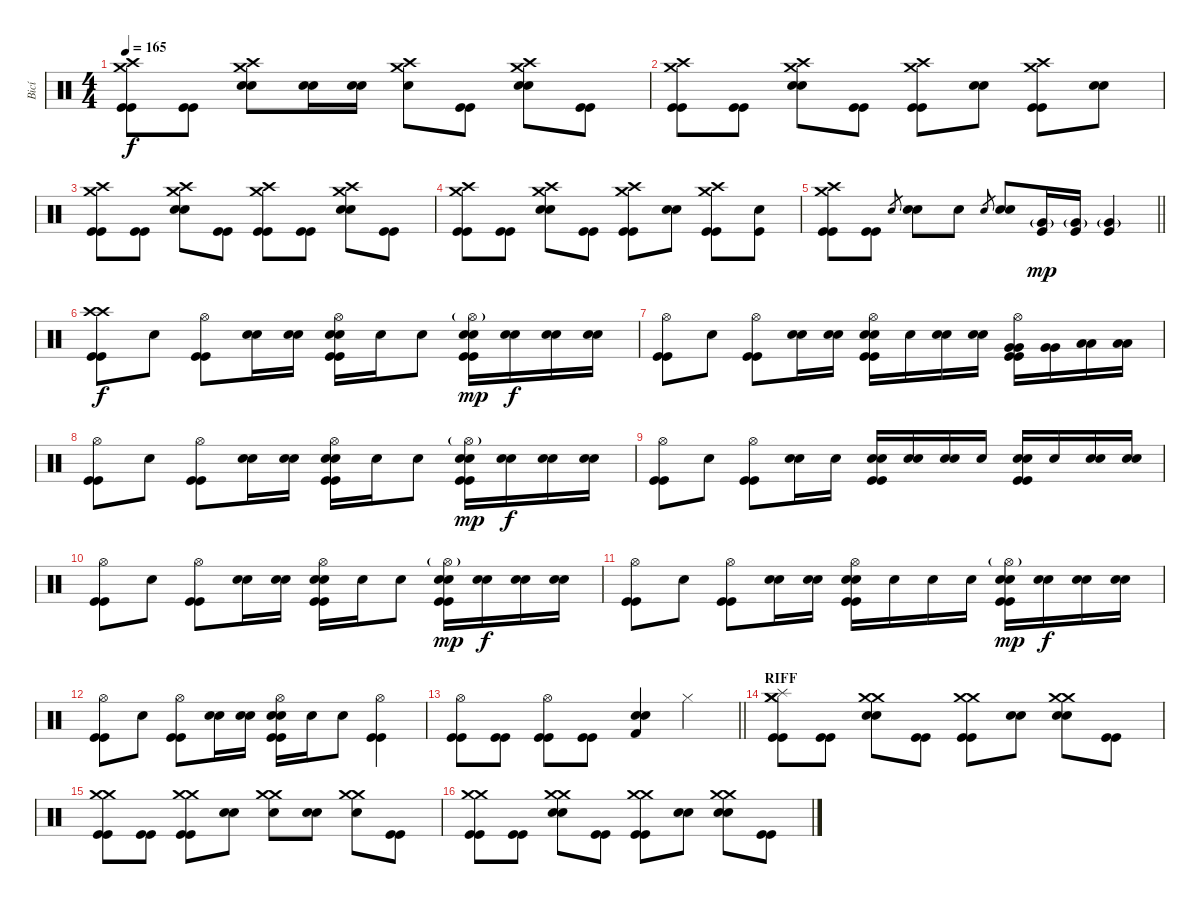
\track ("Bicí" "Bicí") {instrument percussion}
\staff {score}
\articulation defaults
\ts (4 4)
\tempo 165
\clef neutral
\ks c
("Crash medium (hit)" "Crash high (hit)" "Kick (hit)" "Kick (hit)").8{dy f} ("Kick (hit)" "Kick (hit)").8 ("Crash medium (hit)" "Crash high (hit)" "Electric Snare (hit)" "Electric Snare (hit)").8 ("Electric Snare (hit)" "Electric Snare (hit)").16 ("Electric Snare (hit)" "Electric Snare (hit)").16 ("Crash medium (hit)" "Crash high (hit)" "Snare (hit)").8 ("Kick (hit)" "Kick (hit)").8 ("Crash medium (hit)" "Crash high (hit)" "Electric Snare (hit)" "Electric Snare (hit)").8 ("Kick (hit)" "Kick (hit)").8 |
("Crash medium (hit)" "Crash high (hit)" "Kick (hit)" "Kick (hit)").8 ("Kick (hit)" "Kick (hit)").8 ("Crash medium (hit)" "Crash high (hit)" "Electric Snare (hit)" "Electric Snare (hit)").8 ("Kick (hit)" "Kick (hit)").8 ("Crash medium (hit)" "Crash high (hit)" "Kick (hit)" "Kick (hit)").8 ("Electric Snare (hit)" "Electric Snare (hit)").8 ("Crash medium (hit)" "Crash high (hit)" "Kick (hit)" "Kick (hit)").8 ("Electric Snare (hit)" "Electric Snare (hit)").8 |
("Crash medium (hit)" "Crash high (hit)" "Kick (hit)" "Kick (hit)").8 ("Kick (hit)" "Kick (hit)").8 ("Crash medium (hit)" "Crash high (hit)" "Electric Snare (hit)" "Electric Snare (hit)").8 ("Kick (hit)" "Kick (hit)").8 ("Crash medium (hit)" "Crash high (hit)" "Kick (hit)" "Kick (hit)").8 ("Kick (hit)" "Kick (hit)").8 ("Crash medium (hit)" "Crash high (hit)" "Electric Snare (hit)" "Electric Snare (hit)").8 ("Kick (hit)" "Kick (hit)").8 |
("Crash medium (hit)" "Crash high (hit)" "Kick (hit)" "Kick (hit)").8 ("Kick (hit)" "Kick (hit)").8 ("Crash medium (hit)" "Crash high (hit)" "Electric Snare (hit)" "Electric Snare (hit)").8 ("Kick (hit)" "Kick (hit)").8 ("Crash medium (hit)" "Crash high (hit)" "Kick (hit)" "Kick (hit)").8 ("Electric Snare (hit)" "Electric Snare (hit)").8 ("Crash medium (hit)" "Crash high (hit)" "Kick (hit)" "Kick (hit)").8 ("Kick (hit)" "Electric Snare (hit)").8 |
\barLineRight lightlight
("Crash medium (hit)" "Crash high (hit)" "Kick (hit)" "Kick (hit)").8 ("Kick (hit)" "Kick (hit)").8 "Electric Snare (hit)".8{gr} ("Electric Snare (hit)" "Electric Snare (hit)").8 "Snare (hit)".8 "Electric Snare (hit)".8{gr} ("Electric Snare (hit)" "Electric Snare (hit)").8 ("Very Low Tom (hit)"{g} "Kick (hit)").16{dy mp} ("Very Low Tom (hit)"{g} "Kick (hit)").16 ("Very Low Tom (hit)"{g} "Kick (hit)").4 |
\section ("" "")
("Crash high (hit)" "Crash high (hit)" "Kick (hit)" "Kick (hit)").8{dy f} "Snare (hit)".8 ("Hi-Hat (open)" "Kick (hit)" "Kick (hit)").8 ("Electric Snare (hit)" "Electric Snare (hit)").16 ("Electric Snare (hit)" "Electric Snare (hit)").16 ("Hi-Hat (open)" "Electric Snare (hit)" "Electric Snare (hit)" "Kick (hit)" "Kick (hit)").16 "Snare (hit)".16 "Snare (hit)".8 ("Hi-Hat (open)"{g} "Electric Snare (hit)" "Electric Snare (hit)" "Kick (hit)" "Kick (hit)").16{dy mp} ("Electric Snare (hit)" "Electric Snare (hit)").16{dy f} ("Electric Snare (hit)" "Electric Snare (hit)").16 ("Electric Snare (hit)" "Electric Snare (hit)").16 |
("Hi-Hat (open)" "Kick (hit)" "Kick (hit)").8 "Snare (hit)".8 ("Hi-Hat (open)" "Kick (hit)" "Kick (hit)").8 ("Electric Snare (hit)" "Electric Snare (hit)").16 ("Electric Snare (hit)" "Electric Snare (hit)").16 ("Hi-Hat (open)" "Electric Snare (hit)" "Electric Snare (hit)" "Kick (hit)" "Kick (hit)").16 "Snare (hit)".16 ("Electric Snare (hit)" "Electric Snare (hit)").16 ("Electric Snare (hit)" "Electric Snare (hit)").16 ("Hi-Hat (open)" "Very Low Tom (hit)" "Very Low Tom (hit)" "Kick (hit)" "Kick (hit)").16 ("Very Low Tom (hit)" "Very Low Tom (hit)").16 ("Low Floor Tom (hit)" "Low Floor Tom (hit)").16 ("Low Floor Tom (hit)" "Low Floor Tom (hit)").16 |
("Hi-Hat (open)" "Kick (hit)" "Kick (hit)").8 "Snare (hit)".8 ("Hi-Hat (open)" "Kick (hit)" "Kick (hit)").8 ("Electric Snare (hit)" "Electric Snare (hit)").16 ("Electric Snare (hit)" "Electric Snare (hit)").16 ("Hi-Hat (open)" "Electric Snare (hit)" "Electric Snare (hit)" "Kick (hit)" "Kick (hit)").16 "Snare (hit)".16 "Snare (hit)".8 ("Hi-Hat (open)"{g} "Electric Snare (hit)" "Electric Snare (hit)" "Kick (hit)" "Kick (hit)").16{dy mp} ("Electric Snare (hit)" "Electric Snare (hit)").16{dy f} ("Electric Snare (hit)" "Electric Snare (hit)").16 ("Electric Snare (hit)" "Electric Snare (hit)").16 |
("Hi-Hat (open)" "Kick (hit)" "Kick (hit)").8 "Snare (hit)".8 ("Hi-Hat (open)" "Kick (hit)" "Kick (hit)").8 ("Electric Snare (hit)" "Electric Snare (hit)").16 "Snare (hit)".16 ("Electric Snare (hit)" "Electric Snare (hit)" "Kick (hit)" "Kick (hit)").16 ("Electric Snare (hit)" "Electric Snare (hit)").16 ("Electric Snare (hit)" "Electric Snare (hit)").16 "Snare (hit)".16 ("Electric Snare (hit)" "Electric Snare (hit)" "Kick (hit)" "Kick (hit)").16 "Snare (hit)".16 ("Electric Snare (hit)" "Electric Snare (hit)").16 ("Electric Snare (hit)" "Electric Snare (hit)").16 |
("Hi-Hat (open)" "Kick (hit)" "Kick (hit)").8 "Snare (hit)".8 ("Hi-Hat (open)" "Kick (hit)" "Kick (hit)").8 ("Electric Snare (hit)" "Electric Snare (hit)").16 ("Electric Snare (hit)" "Electric Snare (hit)").16 ("Hi-Hat (open)" "Electric Snare (hit)" "Electric Snare (hit)" "Kick (hit)" "Kick (hit)").16 "Snare (hit)".16 "Snare (hit)".8 ("Hi-Hat (open)"{g} "Electric Snare (hit)" "Electric Snare (hit)" "Kick (hit)" "Kick (hit)").16{dy mp} ("Electric Snare (hit)" "Electric Snare (hit)").16{dy f} ("Electric Snare (hit)" "Electric Snare (hit)").16 ("Electric Snare (hit)" "Electric Snare (hit)").16 |
("Hi-Hat (open)" "Kick (hit)" "Kick (hit)").8 "Snare (hit)".8 ("Hi-Hat (open)" "Kick (hit)" "Kick (hit)").8 ("Electric Snare (hit)" "Electric Snare (hit)").16 ("Electric Snare (hit)" "Electric Snare (hit)").16 ("Hi-Hat (open)" "Electric Snare (hit)" "Electric Snare (hit)" "Kick (hit)" "Kick (hit)").16 "Snare (hit)".16 "Snare (hit)".16 "Snare (hit)".16 ("Hi-Hat (open)"{g} "Electric Snare (hit)" "Electric Snare (hit)" "Kick (hit)" "Kick (hit)").16{dy mp} ("Electric Snare (hit)" "Electric Snare (hit)").16{dy f} ("Electric Snare (hit)" "Electric Snare (hit)").16 ("Electric Snare (hit)" "Electric Snare (hit)").16 |
("Hi-Hat (open)" "Kick (hit)" "Kick (hit)").8 "Snare (hit)".8 ("Hi-Hat (open)" "Kick (hit)" "Kick (hit)").8 ("Electric Snare (hit)" "Electric Snare (hit)").16 ("Electric Snare (hit)" "Electric Snare (hit)").16 ("Hi-Hat (open)" "Electric Snare (hit)" "Electric Snare (hit)" "Kick (hit)" "Kick (hit)").16 "Snare (hit)".16 "Snare (hit)".8 ("Hi-Hat (open)" "Kick (hit)" "Kick (hit)").4 |
\barLineRight lightlight
("Hi-Hat (open)" "Kick (hit)" "Kick (hit)").8 ("Kick (hit)" "Kick (hit)").8 ("Hi-Hat (open)" "Kick (hit)" "Kick (hit)").8 ("Kick (hit)" "Kick (hit)").8 ("Kick (hit) 2" "Electric Snare (hit)" "Electric Snare (hit)").4 "Hi-Hat (closed)".4 |
\section ("" "RIFF")
("Crash medium (hit)" "Crash medium (hit)" "Splash (hit)" "Kick (hit)" "Kick (hit)").8 ("Kick (hit)" "Kick (hit)").8 ("Crash medium (hit)" "Crash medium (hit)" "Electric Snare (hit)" "Electric Snare (hit)").8 ("Kick (hit)" "Kick (hit)").8 ("Crash medium (hit)" "Crash medium (hit)" "Kick (hit)" "Kick (hit)").8 ("Electric Snare (hit)" "Electric Snare (hit)").8 ("Crash medium (hit)" "Crash medium (hit)" "Electric Snare (hit)" "Electric Snare (hit)").8 ("Kick (hit)" "Kick (hit)").8 |
("Crash medium (hit)" "Crash medium (hit)" "Kick (hit)" "Kick (hit)").8 ("Kick (hit)" "Kick (hit)").8 ("Crash medium (hit)" "Crash medium (hit)" "Kick (hit)" "Kick (hit)").8 ("Electric Snare (hit)" "Electric Snare (hit)").8 ("Crash medium (hit)" "Crash medium (hit)" "Snare (hit)").8 ("Electric Snare (hit)" "Electric Snare (hit)").8 ("Crash medium (hit)" "Crash medium (hit)" "Snare (hit)").8 ("Kick (hit)" "Kick (hit)").8 |
("Crash medium (hit)" "Crash medium (hit)" "Kick (hit)" "Kick (hit)").8 ("Kick (hit)" "Kick (hit)").8 ("Crash medium (hit)" "Crash medium (hit)" "Electric Snare (hit)" "Electric Snare (hit)").8 ("Kick (hit)" "Kick (hit)").8 ("Crash medium (hit)" "Crash medium (hit)" "Kick (hit)" "Kick (hit)").8 ("Electric Snare (hit)" "Electric Snare (hit)").8 ("Crash medium (hit)" "Crash medium (hit)" "Electric Snare (hit)" "Electric Snare (hit)").8 ("Kick (hit)" "Kick (hit)").8
